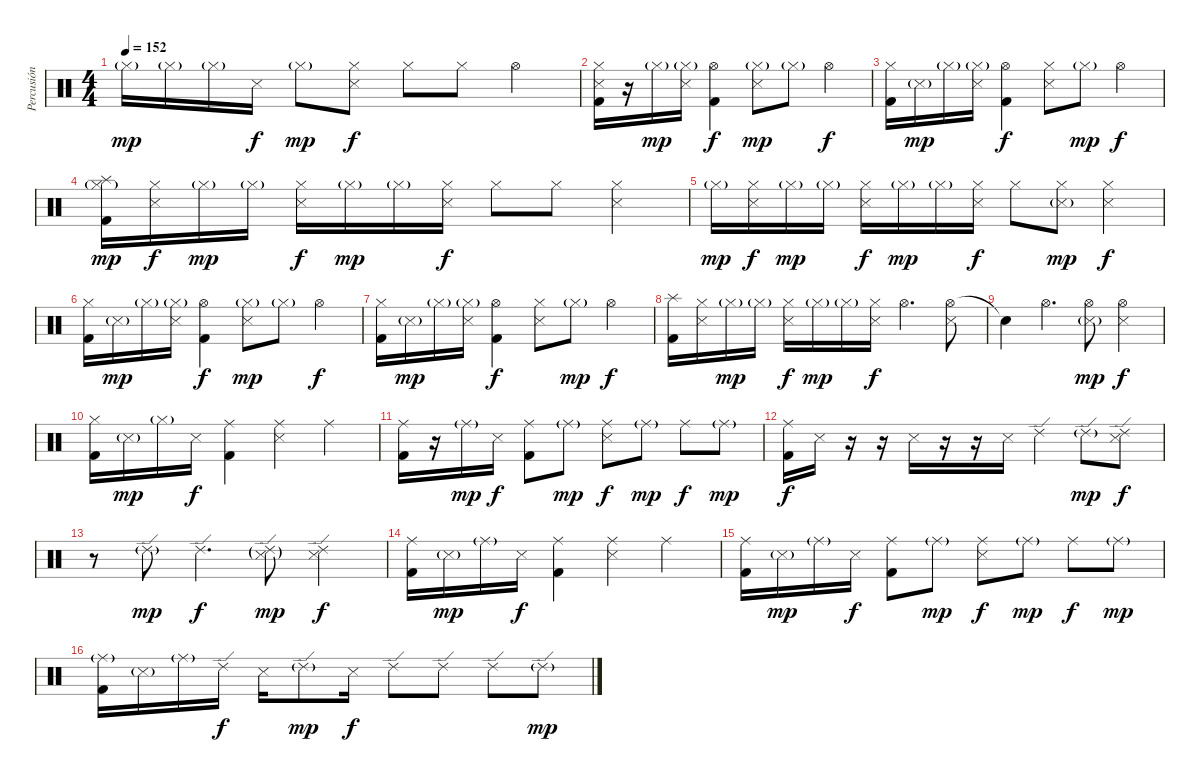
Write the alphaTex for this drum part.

\track ("Percusión" "Percusión") {instrument percussion}
\staff {score}
\articulation defaults
\ts (4 4)
\tempo 152
\clef neutral
\ks c "Hi-Hat (closed)"{g}.16{dy mp} "Hi-Hat (closed)"{g}.16 "Hi-Hat (closed)"{g}.16 "Snare (side stick) 3".16{dy f} "Hi-Hat (closed)"{g}.8{dy mp}
("Hi-Hat (closed)" "Snare (side stick) 3").8{dy f} "Hi-Hat (closed)".8 "Hi-Hat (closed)".8 "Hi-Hat (open)".4 |
("Hi-Hat (closed)" "Snare (side stick) 3" "Kick (hit) 2").16 r.16 "Hi-Hat (closed)"{g}.16{dy mp} ("Hi-Hat (closed)"{g} "Snare (side stick) 3").16 ("Hi-Hat (open)" "Kick (hit) 2").4{dy f} ("Hi-Hat (closed)"{g} "Snare (side stick) 3").8{dy mp} "Hi-Hat (closed)"{g}.8 "Hi-Hat (open)".4{dy f} |
("Hi-Hat (closed)" "Kick (hit) 2").16 "Snare (side stick) 3"{g}.16{dy mp} "Hi-Hat (closed)"{g}.16 ("Hi-Hat (closed)"{g} "Snare (side stick) 3").16 ("Hi-Hat (open)" "Kick (hit) 2").4{dy f} ("Hi-Hat (closed)" "Snare (side stick) 3").8 "Hi-Hat (closed)"{g}.8{dy mp} "Hi-Hat (open)".4{dy f} |
("Splash (hit)" "Hi-Hat (closed)"{g} "Kick (hit) 2").16{dy mp} ("Hi-Hat (closed)" "Snare (side stick) 3").16{dy f} "Hi-Hat (closed)"{g}.16{dy mp} "Hi-Hat (closed)"{g}.16 ("Hi-Hat (closed)" "Snare (side stick) 3").16{dy f} "Hi-Hat (closed)"{g}.16{dy mp} "Hi-Hat (closed)"{g}.16 ("Hi-Hat (closed)" "Snare (side stick) 3").16{dy f} "Hi-Hat (closed)".8 "Hi-Hat (closed)".8 ("Hi-Hat (closed)" "Snare (side stick) 3").4 |
"Hi-Hat (closed)"{g}.16{dy mp} ("Hi-Hat (closed)" "Snare (side stick) 3").16{dy f} "Hi-Hat (closed)"{g}.16{dy mp} "Hi-Hat (closed)"{g}.16 ("Hi-Hat (closed)" "Snare (side stick) 3").16{dy f} "Hi-Hat (closed)"{g}.16{dy mp} "Hi-Hat (closed)"{g}.16 ("Hi-Hat (closed)" "Snare (side stick) 3").16{dy f} "Hi-Hat (closed)".8 ("Hi-Hat (closed)" "Snare (side stick) 3"{g}).8{dy mp} ("Hi-Hat (closed)" "Snare (side stick) 3").4{dy f} |
("Hi-Hat (closed)" "Kick (hit) 2").16 "Snare (side stick) 3"{g}.16{dy mp} "Hi-Hat (closed)"{g}.16 ("Hi-Hat (closed)"{g} "Snare (side stick) 3").16 ("Hi-Hat (open)" "Kick (hit) 2").4{dy f} ("Hi-Hat (closed)"{g} "Snare (side stick) 3").8{dy mp} "Hi-Hat (closed)"{g}.8 "Hi-Hat (open)".4{dy f} |
("Hi-Hat (closed)" "Kick (hit) 2").16 "Snare (side stick) 3"{g}.16{dy mp} "Hi-Hat (closed)"{g}.16 ("Hi-Hat (closed)"{g} "Snare (side stick) 3").16 ("Hi-Hat (open)" "Kick (hit) 2").4{dy f} ("Hi-Hat (closed)" "Snare (side stick) 3").8 "Hi-Hat (closed)"{g}.8{dy mp} "Hi-Hat (open)".4{dy f} |
("Splash (hit)" "Kick (hit) 2").16 ("Hi-Hat (closed)" "Snare (side stick) 3").16 "Hi-Hat (closed)"{g}.16{dy mp} "Hi-Hat (closed)"{g}.16 ("Hi-Hat (closed)" "Snare (side stick) 3").16{dy f} "Hi-Hat (closed)"{g}.16{dy mp} "Hi-Hat (closed)"{g}.16 ("Hi-Hat (closed)" "Snare (side stick) 3").16{dy f} "Hi-Hat (open)".4{d} ("Hi-Hat (open)" "Snare (side stick) 3").8 |
"Snare (hit)"{t}.4 "Hi-Hat (open)".4{d} ("Hi-Hat (open)" "Snare (side stick) 3"{g}).8{dy mp} ("Hi-Hat (open)" "Snare (side stick) 3").4{dy f} |
("Hi-Hat (closed)" "Kick (hit) 2").16 "Snare (side stick) 3"{g}.16{dy mp} "Hi-Hat (closed)"{g}.16 "Snare (side stick) 3".16{dy f} ("Ride (middle)" "Kick (hit) 2").4 ("Ride (middle)" "Snare (side stick) 3").4 "Ride (middle)".4 |
("Ride (middle)" "Kick (hit) 2").16 r.16 "Ride (middle)"{g}.16{dy mp} "Snare (side stick) 3".16{dy f} ("Ride (middle)" "Kick (hit) 2").8 "Ride (middle)"{g}.8{dy mp} ("Ride (middle)" "Snare (side stick) 3").8{dy f} "Ride (middle)"{g}.8{dy mp} "Ride (middle)".8{dy f} "Ride (middle)"{g}.8{dy mp} |
("Ride (middle)" "Kick (hit) 2").16{dy f} "Snare (side stick) 3".16 r.16 r.16 "Snare (side stick) 3".16 r.16 r.16 "Snare (side stick) 3".16 "Ride (edge) 2".4 "Ride (edge) 2"{g}.8{dy mp} ("Ride (edge) 2" "Snare (side stick) 3").8{dy f} |
r.8 "Ride (edge) 2"{g}.8{dy mp} "Ride (edge) 2".4{d dy f} ("Ride (edge) 2"{g} "Snare (side stick) 3"{g}).8{dy mp} ("Ride (edge) 2" "Snare (side stick) 3").4{dy f} |
("Ride (middle)" "Kick (hit) 2").16 "Snare (side stick) 3"{g}.16{dy mp} "Ride (middle)"{g}.16 "Snare (side stick) 3".16{dy f} ("Ride (middle)" "Kick (hit) 2").4 ("Ride (middle)" "Snare (side stick) 3").4 "Ride (middle)".4 |
("Ride (middle)" "Kick (hit) 2").16 "Snare (side stick) 3"{g}.16{dy mp} "Ride (middle)"{g}.16 "Snare (side stick) 3".16{dy f} ("Ride (middle)" "Kick (hit) 2").8 "Ride (middle)"{g}.8{dy mp} ("Ride (middle)" "Snare (side stick) 3").8{dy f} "Ride (middle)"{g}.8{dy mp} "Ride (middle)".8{dy f} "Ride (middle)"{g}.8{dy mp} |
("Ride (middle)"{g} "Kick (hit) 2").16 "Snare (side stick) 3"{g}.16 "Ride (middle)"{g}.16 "Ride (edge) 2".16{dy f} "Snare (side stick) 3".16 "Ride (edge) 2"{g}.8{dy mp} "Snare (side stick) 3".16{dy f} "Ride (edge) 2".8 "Ride (edge) 2".8 "Ride (edge) 2".8 "Ride (edge) 2"{g}.8{dy mp}
